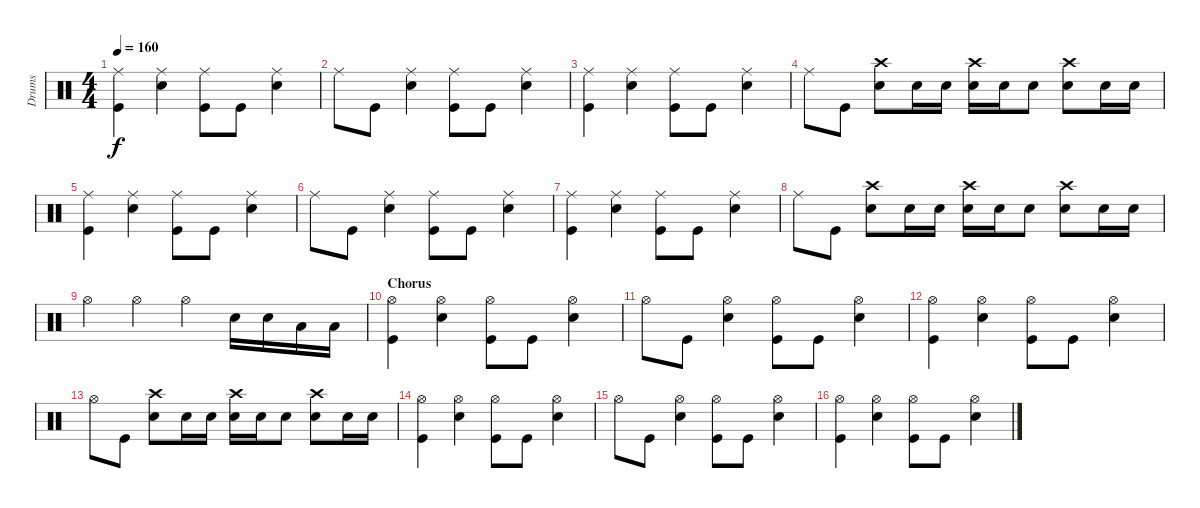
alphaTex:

\track ("Drums" "Drums") {instrument percussion}
\staff {score}
\articulation defaults
\ts (4 4)
\tempo 160
\clef neutral
\ks c
("Ride (middle)" "Kick (hit)").4{dy f} ("Ride (middle)" "Electric Snare (hit)").4 ("Ride (middle)" "Kick (hit)").8 "Kick (hit)".8 ("Ride (middle)" "Electric Snare (hit)").4 |
"Ride (middle)".8 "Kick (hit)".8 ("Ride (middle)" "Electric Snare (hit)").4 ("Ride (middle)" "Kick (hit)").8 "Kick (hit)".8 ("Ride (middle)" "Electric Snare (hit)").4 |
("Ride (middle)" "Kick (hit)").4 ("Ride (middle)" "Electric Snare (hit)").4 ("Ride (middle)" "Kick (hit)").8 "Kick (hit)".8 ("Ride (middle)" "Electric Snare (hit)").4 |
"Ride (middle)".8 "Kick (hit)".8 ("Electric Snare (hit)" "Crash high (hit)").8 "Electric Snare (hit)".16 "Electric Snare (hit)".16 ("Electric Snare (hit)" "Crash high (hit)").16 "Electric Snare (hit)".16 "Electric Snare (hit)".8 ("Electric Snare (hit)" "Crash high (hit)").8 "Electric Snare (hit)".16 "Electric Snare (hit)".16 |
("Ride (middle)" "Kick (hit)").4 ("Ride (middle)" "Electric Snare (hit)").4 ("Ride (middle)" "Kick (hit)").8 "Kick (hit)".8 ("Ride (middle)" "Electric Snare (hit)").4 |
"Ride (middle)".8 "Kick (hit)".8 ("Ride (middle)" "Electric Snare (hit)").4 ("Ride (middle)" "Kick (hit)").8 "Kick (hit)".8 ("Ride (middle)" "Electric Snare (hit)").4 |
("Ride (middle)" "Kick (hit)").4 ("Ride (middle)" "Electric Snare (hit)").4 ("Ride (middle)" "Kick (hit)").8 "Kick (hit)".8 ("Ride (middle)" "Electric Snare (hit)").4 |
"Ride (middle)".8 "Kick (hit)".8 ("Electric Snare (hit)" "Crash high (hit)").8 "Electric Snare (hit)".16 "Electric Snare (hit)".16 ("Electric Snare (hit)" "Crash high (hit)").16 "Electric Snare (hit)".16 "Electric Snare (hit)".8 ("Electric Snare (hit)" "Crash high (hit)").8 "Electric Snare (hit)".16 "Electric Snare (hit)".16 |
"Hi-Hat (open)".4 "Hi-Hat (open)".4 "Hi-Hat (open)".4 "Electric Snare (hit)".16 "Electric Snare (hit)".16 "Low Tom (hit)".16 "Low Tom (hit)".16 |
\section ("" "Chorus")
("Hi-Hat (open)" "Kick (hit)").4 ("Hi-Hat (open)" "Electric Snare (hit)").4 ("Hi-Hat (open)" "Kick (hit)").8 "Kick (hit)".8 ("Hi-Hat (open)" "Electric Snare (hit)").4 |
"Hi-Hat (open)".8 "Kick (hit)".8 ("Hi-Hat (open)" "Electric Snare (hit)").4 ("Hi-Hat (open)" "Kick (hit)").8 "Kick (hit)".8 ("Hi-Hat (open)" "Electric Snare (hit)").4 |
("Hi-Hat (open)" "Kick (hit)").4 ("Hi-Hat (open)" "Electric Snare (hit)").4 ("Hi-Hat (open)" "Kick (hit)").8 "Kick (hit)".8 ("Hi-Hat (open)" "Electric Snare (hit)").4 |
"Hi-Hat (open)".8 "Kick (hit)".8 ("Electric Snare (hit)" "Crash high (hit)").8 "Electric Snare (hit)".16 "Electric Snare (hit)".16 ("Electric Snare (hit)" "Crash high (hit)").16 "Electric Snare (hit)".16 "Electric Snare (hit)".8 ("Electric Snare (hit)" "Crash high (hit)").8 "Electric Snare (hit)".16 "Electric Snare (hit)".16 |
("Hi-Hat (open)" "Kick (hit)").4 ("Hi-Hat (open)" "Electric Snare (hit)").4 ("Hi-Hat (open)" "Kick (hit)").8 "Kick (hit)".8 ("Hi-Hat (open)" "Electric Snare (hit)").4 |
"Hi-Hat (open)".8 "Kick (hit)".8 ("Hi-Hat (open)" "Electric Snare (hit)").4 ("Hi-Hat (open)" "Kick (hit)").8 "Kick (hit)".8 ("Hi-Hat (open)" "Electric Snare (hit)").4 |
("Hi-Hat (open)" "Kick (hit)").4 ("Hi-Hat (open)" "Electric Snare (hit)").4 ("Hi-Hat (open)" "Kick (hit)").8 "Kick (hit)".8 ("Hi-Hat (open)" "Electric Snare (hit)").4
